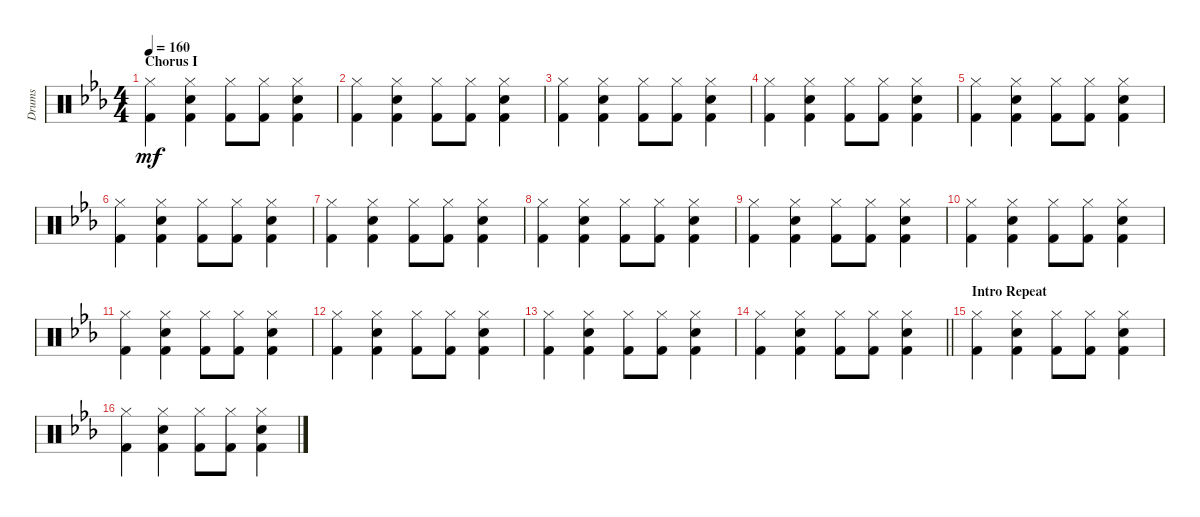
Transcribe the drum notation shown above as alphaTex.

\track ("Drums" "Drums") {instrument percussion}
\staff {score}
\articulation defaults
\ts (4 4)
\section ("" "Chorus I")
\tempo 160
\clef neutral
\ks eb
("Hi-Hat (closed)" "Kick (hit) 2").4{dy mf} ("Hi-Hat (closed)" "Electric Snare (hit)" "Kick (hit) 2").4 ("Hi-Hat (closed)" "Kick (hit) 2").8 ("Hi-Hat (closed)" "Kick (hit) 2").8 ("Hi-Hat (closed)" "Electric Snare (hit)" "Kick (hit) 2").4 |
("Hi-Hat (closed)" "Kick (hit) 2").4 ("Hi-Hat (closed)" "Electric Snare (hit)" "Kick (hit) 2").4 ("Hi-Hat (closed)" "Kick (hit) 2").8 ("Hi-Hat (closed)" "Kick (hit) 2").8 ("Hi-Hat (closed)" "Electric Snare (hit)" "Kick (hit) 2").4 |
("Hi-Hat (closed)" "Kick (hit) 2").4 ("Hi-Hat (closed)" "Electric Snare (hit)" "Kick (hit) 2").4 ("Hi-Hat (closed)" "Kick (hit) 2").8 ("Hi-Hat (closed)" "Kick (hit) 2").8 ("Hi-Hat (closed)" "Electric Snare (hit)" "Kick (hit) 2").4 |
("Hi-Hat (closed)" "Kick (hit) 2").4 ("Hi-Hat (closed)" "Electric Snare (hit)" "Kick (hit) 2").4 ("Hi-Hat (closed)" "Kick (hit) 2").8 ("Hi-Hat (closed)" "Kick (hit) 2").8 ("Hi-Hat (closed)" "Electric Snare (hit)" "Kick (hit) 2").4 |
("Hi-Hat (closed)" "Kick (hit) 2").4 ("Hi-Hat (closed)" "Electric Snare (hit)" "Kick (hit) 2").4 ("Hi-Hat (closed)" "Kick (hit) 2").8 ("Hi-Hat (closed)" "Kick (hit) 2").8 ("Hi-Hat (closed)" "Electric Snare (hit)" "Kick (hit) 2").4 |
("Hi-Hat (closed)" "Kick (hit) 2").4 ("Hi-Hat (closed)" "Electric Snare (hit)" "Kick (hit) 2").4 ("Hi-Hat (closed)" "Kick (hit) 2").8 ("Hi-Hat (closed)" "Kick (hit) 2").8 ("Hi-Hat (closed)" "Electric Snare (hit)" "Kick (hit) 2").4 |
("Hi-Hat (closed)" "Kick (hit) 2").4 ("Hi-Hat (closed)" "Electric Snare (hit)" "Kick (hit) 2").4 ("Hi-Hat (closed)" "Kick (hit) 2").8 ("Hi-Hat (closed)" "Kick (hit) 2").8 ("Hi-Hat (closed)" "Electric Snare (hit)" "Kick (hit) 2").4 |
("Hi-Hat (closed)" "Kick (hit) 2").4 ("Hi-Hat (closed)" "Electric Snare (hit)" "Kick (hit) 2").4 ("Hi-Hat (closed)" "Kick (hit) 2").8 ("Hi-Hat (closed)" "Kick (hit) 2").8 ("Hi-Hat (closed)" "Electric Snare (hit)" "Kick (hit) 2").4 |
("Hi-Hat (closed)" "Kick (hit) 2").4 ("Hi-Hat (closed)" "Electric Snare (hit)" "Kick (hit) 2").4 ("Hi-Hat (closed)" "Kick (hit) 2").8 ("Hi-Hat (closed)" "Kick (hit) 2").8 ("Hi-Hat (closed)" "Electric Snare (hit)" "Kick (hit) 2").4 |
("Hi-Hat (closed)" "Kick (hit) 2").4 ("Hi-Hat (closed)" "Electric Snare (hit)" "Kick (hit) 2").4 ("Hi-Hat (closed)" "Kick (hit) 2").8 ("Hi-Hat (closed)" "Kick (hit) 2").8 ("Hi-Hat (closed)" "Electric Snare (hit)" "Kick (hit) 2").4 |
("Hi-Hat (closed)" "Kick (hit) 2").4 ("Hi-Hat (closed)" "Electric Snare (hit)" "Kick (hit) 2").4 ("Hi-Hat (closed)" "Kick (hit) 2").8 ("Hi-Hat (closed)" "Kick (hit) 2").8 ("Hi-Hat (closed)" "Electric Snare (hit)" "Kick (hit) 2").4 |
("Hi-Hat (closed)" "Kick (hit) 2").4 ("Hi-Hat (closed)" "Electric Snare (hit)" "Kick (hit) 2").4 ("Hi-Hat (closed)" "Kick (hit) 2").8 ("Hi-Hat (closed)" "Kick (hit) 2").8 ("Hi-Hat (closed)" "Electric Snare (hit)" "Kick (hit) 2").4 |
("Hi-Hat (closed)" "Kick (hit) 2").4 ("Hi-Hat (closed)" "Electric Snare (hit)" "Kick (hit) 2").4 ("Hi-Hat (closed)" "Kick (hit) 2").8 ("Hi-Hat (closed)" "Kick (hit) 2").8 ("Hi-Hat (closed)" "Electric Snare (hit)" "Kick (hit) 2").4 |
\barLineRight lightlight
("Hi-Hat (closed)" "Kick (hit) 2").4 ("Hi-Hat (closed)" "Electric Snare (hit)" "Kick (hit) 2").4 ("Hi-Hat (closed)" "Kick (hit) 2").8 ("Hi-Hat (closed)" "Kick (hit) 2").8 ("Hi-Hat (closed)" "Electric Snare (hit)" "Kick (hit) 2").4 |
\section ("" "Intro Repeat")
("Hi-Hat (closed)" "Kick (hit) 2").4 ("Hi-Hat (closed)" "Electric Snare (hit)" "Kick (hit) 2").4 ("Hi-Hat (closed)" "Kick (hit) 2").8 ("Hi-Hat (closed)" "Kick (hit) 2").8 ("Hi-Hat (closed)" "Electric Snare (hit)" "Kick (hit) 2").4 |
("Hi-Hat (closed)" "Kick (hit) 2").4 ("Hi-Hat (closed)" "Electric Snare (hit)" "Kick (hit) 2").4 ("Hi-Hat (closed)" "Kick (hit) 2").8 ("Hi-Hat (closed)" "Kick (hit) 2").8 ("Hi-Hat (closed)" "Electric Snare (hit)" "Kick (hit) 2").4
